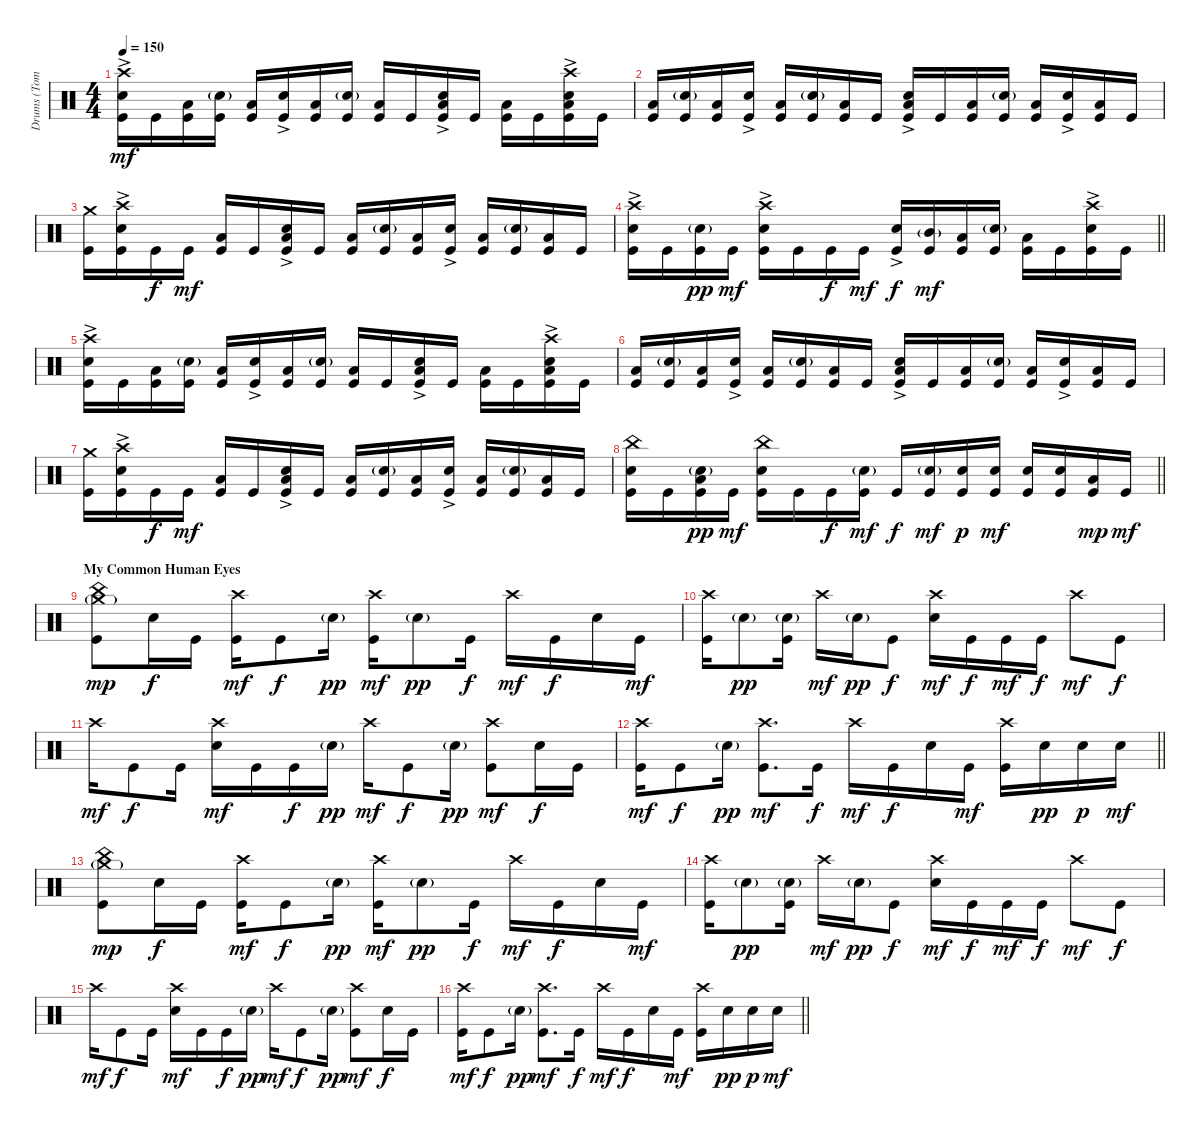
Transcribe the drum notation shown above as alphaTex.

\track ("Drums (Tomas Haake)" "Drums (Tom") {instrument percussion}
\staff {score}
\articulation defaults
\ts (4 4)
\tempo 150
\clef neutral
\ks c
("Crash high (hit)" "Electric Snare (hit)"{ac} "Kick (hit)").16{dy mf} "Kick (hit)".16 ("Low Floor Tom (hit)" "Kick (hit)").16 ("Electric Snare (hit)"{g} "Kick (hit)").16 ("Low Floor Tom (hit)" "Kick (hit)").16 ("Electric Snare (hit)"{ac} "Kick (hit)").16 ("Low Floor Tom (hit)" "Kick (hit)").16 ("Electric Snare (hit)"{g} "Kick (hit)").16 ("Low Floor Tom (hit)" "Kick (hit)").16 "Kick (hit)".16 ("Low Floor Tom (hit)" "Electric Snare (hit)"{ac} "Kick (hit)").16 "Kick (hit)".16 ("Low Floor Tom (hit)" "Kick (hit)").16 "Kick (hit)".16 ("Crash high (hit)" "Low Floor Tom (hit)" "Electric Snare (hit)"{ac} "Kick (hit)").16 "Kick (hit)".16 |
("Low Floor Tom (hit)" "Kick (hit)").16 ("Electric Snare (hit)"{g} "Kick (hit)").16 ("Low Floor Tom (hit)" "Kick (hit)").16 ("Electric Snare (hit)"{ac} "Kick (hit)").16 ("Low Floor Tom (hit)" "Kick (hit)").16 ("Electric Snare (hit)"{g} "Kick (hit)").16 ("Low Floor Tom (hit)" "Kick (hit)").16 "Kick (hit)".16 ("Low Floor Tom (hit)" "Electric Snare (hit)"{ac} "Kick (hit)").16 "Kick (hit)".16 ("Low Floor Tom (hit)" "Kick (hit)").16 ("Electric Snare (hit)"{g} "Kick (hit)").16 ("Low Floor Tom (hit)" "Kick (hit)").16 ("Electric Snare (hit)"{ac} "Kick (hit)").16 ("Low Floor Tom (hit)" "Kick (hit)").16 "Kick (hit)".16 |
("Crash medium (hit)" "Kick (hit)").16 ("Crash high (hit)" "Electric Snare (hit)"{ac} "Kick (hit)").16 "Kick (hit)".16{dy f} "Kick (hit)".16{dy mf} ("Low Floor Tom (hit)" "Kick (hit)").16 "Kick (hit)".16 ("Low Floor Tom (hit)" "Electric Snare (hit)"{ac} "Kick (hit)").16 "Kick (hit)".16 ("Low Floor Tom (hit)" "Kick (hit)").16 ("Electric Snare (hit)"{g} "Kick (hit)").16 ("Low Floor Tom (hit)" "Kick (hit)").16 ("Electric Snare (hit)"{ac} "Kick (hit)").16 ("Low Floor Tom (hit)" "Kick (hit)").16 ("Electric Snare (hit)"{g} "Kick (hit)").16 ("Low Floor Tom (hit)" "Kick (hit)").16 "Kick (hit)".16 |
\barLineRight lightlight
("Crash high (hit)" "Electric Snare (hit)"{ac} "Kick (hit)").16 "Kick (hit)".16 ("Electric Snare (hit)"{g} "Kick (hit)").16{dy pp} "Kick (hit)".16{dy mf} ("Crash high (hit)" "Electric Snare (hit)"{ac} "Kick (hit)").16 "Kick (hit)".16 "Kick (hit)".16{dy f} "Kick (hit)".16{dy mf} ("Electric Snare (hit)"{ac} "Kick (hit)").16{dy f} ("Mid Tom (hit)"{g} "Kick (hit)").16{dy mf} ("Low Floor Tom (hit)" "Kick (hit)").16 ("Electric Snare (hit)"{g} "Kick (hit)").16 ("Low Floor Tom (hit)" "Kick (hit)").16 "Kick (hit)".16 ("Crash high (hit)" "Electric Snare (hit)"{ac} "Kick (hit)").16 "Kick (hit)".16 |
("Crash high (hit)" "Electric Snare (hit)"{ac} "Kick (hit)").16 "Kick (hit)".16 ("Low Floor Tom (hit)" "Kick (hit)").16 ("Electric Snare (hit)"{g} "Kick (hit)").16 ("Low Floor Tom (hit)" "Kick (hit)").16 ("Electric Snare (hit)"{ac} "Kick (hit)").16 ("Low Floor Tom (hit)" "Kick (hit)").16 ("Electric Snare (hit)"{g} "Kick (hit)").16 ("Low Floor Tom (hit)" "Kick (hit)").16 "Kick (hit)".16 ("Low Floor Tom (hit)" "Electric Snare (hit)"{ac} "Kick (hit)").16 "Kick (hit)".16 ("Low Floor Tom (hit)" "Kick (hit)").16 "Kick (hit)".16 ("Crash high (hit)" "Low Floor Tom (hit)" "Electric Snare (hit)"{ac} "Kick (hit)").16 "Kick (hit)".16 |
("Low Floor Tom (hit)" "Kick (hit)").16 ("Electric Snare (hit)"{g} "Kick (hit)").16 ("Low Floor Tom (hit)" "Kick (hit)").16 ("Electric Snare (hit)"{ac} "Kick (hit)").16 ("Low Floor Tom (hit)" "Kick (hit)").16 ("Electric Snare (hit)"{g} "Kick (hit)").16 ("Low Floor Tom (hit)" "Kick (hit)").16 "Kick (hit)".16 ("Low Floor Tom (hit)" "Electric Snare (hit)"{ac} "Kick (hit)").16 "Kick (hit)".16 ("Low Floor Tom (hit)" "Kick (hit)").16 ("Electric Snare (hit)"{g} "Kick (hit)").16 ("Low Floor Tom (hit)" "Kick (hit)").16 ("Electric Snare (hit)"{ac} "Kick (hit)").16 ("Low Floor Tom (hit)" "Kick (hit)").16 "Kick (hit)".16 |
("Crash medium (hit)" "Kick (hit)").16 ("Crash high (hit)" "Electric Snare (hit)"{ac} "Kick (hit)").16 "Kick (hit)".16{dy f} "Kick (hit)".16{dy mf} ("Low Floor Tom (hit)" "Kick (hit)").16 "Kick (hit)".16 ("Low Floor Tom (hit)" "Electric Snare (hit)"{ac} "Kick (hit)").16 "Kick (hit)".16 ("Low Floor Tom (hit)" "Kick (hit)").16 ("Electric Snare (hit)"{g} "Kick (hit)").16 ("Low Floor Tom (hit)" "Kick (hit)").16 ("Electric Snare (hit)"{ac} "Kick (hit)").16 ("Low Floor Tom (hit)" "Kick (hit)").16 ("Electric Snare (hit)"{g} "Kick (hit)").16 ("Low Floor Tom (hit)" "Kick (hit)").16 "Kick (hit)".16 |
\barLineRight lightlight
("China (hit)" "Electric Snare (hit)" "Kick (hit)").16 "Kick (hit)".16 ("Low Floor Tom (hit)" "Electric Snare (hit)"{g} "Kick (hit)").16{dy pp} "Kick (hit)".16{dy mf} ("China (hit)" "Electric Snare (hit)" "Kick (hit)").16 "Kick (hit)".16 "Kick (hit)".16{dy f} ("Electric Snare (hit)"{g} "Kick (hit)").16{dy mf} "Kick (hit)".16{dy f} ("Electric Snare (hit)"{g} "Kick (hit)").16{dy mf} ("Electric Snare (hit)" "Kick (hit)").16{dy p} ("Electric Snare (hit)" "Kick (hit)").16{dy mf} ("Electric Snare (hit)" "Kick (hit)").16 ("Electric Snare (hit)" "Kick (hit)").16 ("Low Tom (hit)" "Kick (hit)").16{dy mp} "Kick (hit)".16{dy mf} |
\section ("" "My Common Human Eyes")
("China (hit)" "Crash medium (hit)"{g} "Kick (hit)").8{dy mp} "Electric Snare (hit)".16{dy f} "Kick (hit)".16 ("Crash high (hit)" "Kick (hit)").16{dy mf} "Kick (hit)".8{dy f} "Electric Snare (hit)"{g}.16{dy pp} ("Crash high (hit)" "Kick (hit)").16{dy mf} "Electric Snare (hit)"{g}.8{dy pp} "Kick (hit)".16{dy f} "Crash high (hit)".16{dy mf} "Kick (hit)".16{dy f} "Electric Snare (hit)".16 "Kick (hit)".16{dy mf} |
("Crash high (hit)" "Kick (hit)").16 "Electric Snare (hit)"{g}.8{dy pp} ("Electric Snare (hit)"{g} "Kick (hit)").16 "Crash high (hit)".16{dy mf} "Electric Snare (hit)"{g}.16{dy pp} "Kick (hit)".8{dy f} ("Crash high (hit)" "Electric Snare (hit)").16{dy mf} "Kick (hit)".16{dy f} "Kick (hit)".16{dy mf} "Kick (hit)".16{dy f} "Crash high (hit)".8{dy mf} "Kick (hit)".8{dy f} |
"Crash high (hit)".16{dy mf} "Kick (hit)".8{dy f} "Kick (hit)".16 ("Crash high (hit)" "Electric Snare (hit)").16{dy mf} "Kick (hit)".16 "Kick (hit)".16{dy f} "Electric Snare (hit)"{g}.16{dy pp} "Crash high (hit)".16{dy mf} "Kick (hit)".8{dy f} "Electric Snare (hit)"{g}.16{dy pp} ("Crash high (hit)" "Kick (hit)").8{dy mf} "Electric Snare (hit)".16{dy f} "Kick (hit)".16 |
\barLineRight lightlight
("Crash high (hit)" "Kick (hit)").16{dy mf} "Kick (hit)".8{dy f} "Electric Snare (hit)"{g}.16{dy pp} ("Crash high (hit)" "Kick (hit)").8{d dy mf} "Kick (hit)".16{dy f} "Crash high (hit)".16{dy mf} "Kick (hit)".16{dy f} "Electric Snare (hit)".16 "Kick (hit)".16{dy mf} ("Crash high (hit)" "Kick (hit)").16 "Electric Snare (hit)".16{dy pp} "Electric Snare (hit)".16{dy p} "Electric Snare (hit)".16{dy mf} |
("China (hit)" "Crash medium (hit)"{g} "Kick (hit)").8{dy mp} "Electric Snare (hit)".16{dy f} "Kick (hit)".16 ("Crash high (hit)" "Kick (hit)").16{dy mf} "Kick (hit)".8{dy f} "Electric Snare (hit)"{g}.16{dy pp} ("Crash high (hit)" "Kick (hit)").16{dy mf} "Electric Snare (hit)"{g}.8{dy pp} "Kick (hit)".16{dy f} "Crash high (hit)".16{dy mf} "Kick (hit)".16{dy f} "Electric Snare (hit)".16 "Kick (hit)".16{dy mf} |
("Crash high (hit)" "Kick (hit)").16 "Electric Snare (hit)"{g}.8{dy pp} ("Electric Snare (hit)"{g} "Kick (hit)").16 "Crash high (hit)".16{dy mf} "Electric Snare (hit)"{g}.16{dy pp} "Kick (hit)".8{dy f} ("Crash high (hit)" "Electric Snare (hit)").16{dy mf} "Kick (hit)".16{dy f} "Kick (hit)".16{dy mf} "Kick (hit)".16{dy f} "Crash high (hit)".8{dy mf} "Kick (hit)".8{dy f} |
"Crash high (hit)".16{dy mf} "Kick (hit)".8{dy f} "Kick (hit)".16 ("Crash high (hit)" "Electric Snare (hit)").16{dy mf} "Kick (hit)".16 "Kick (hit)".16{dy f} "Electric Snare (hit)"{g}.16{dy pp} "Crash high (hit)".16{dy mf} "Kick (hit)".8{dy f} "Electric Snare (hit)"{g}.16{dy pp} ("Crash high (hit)" "Kick (hit)").8{dy mf} "Electric Snare (hit)".16{dy f} "Kick (hit)".16 |
\barLineRight lightlight
("Crash high (hit)" "Kick (hit)").16{dy mf} "Kick (hit)".8{dy f} "Electric Snare (hit)"{g}.16{dy pp} ("Crash high (hit)" "Kick (hit)").8{d dy mf} "Kick (hit)".16{dy f} "Crash high (hit)".16{dy mf} "Kick (hit)".16{dy f} "Electric Snare (hit)".16 "Kick (hit)".16{dy mf} ("Crash high (hit)" "Kick (hit)").16 "Electric Snare (hit)".16{dy pp} "Electric Snare (hit)".16{dy p} "Electric Snare (hit)".16{dy mf}
